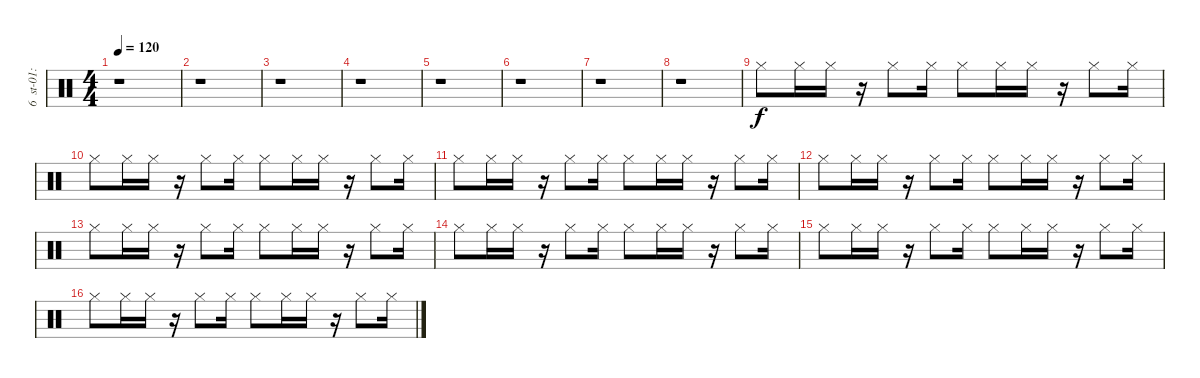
\track (" 6  st-01:hihat2" " 6  st-01:") {instrument percussion}
\staff {score}
\articulation defaults
\ts (4 4)
\tempo 120
\clef neutral
\ks c
r.1{dy f} |
r.1 |
r.1 |
r.1 |
r.1 |
r.1 |
r.1 |
r.1 |
"Hi-Hat (closed)".8 "Hi-Hat (closed)".16 "Hi-Hat (closed)".16 r.16 "Hi-Hat (closed)".8 "Hi-Hat (closed)".16 "Hi-Hat (closed)".8 "Hi-Hat (closed)".16 "Hi-Hat (closed)".16 r.16 "Hi-Hat (closed)".8 "Hi-Hat (closed)".16 |
"Hi-Hat (closed)".8 "Hi-Hat (closed)".16 "Hi-Hat (closed)".16 r.16 "Hi-Hat (closed)".8 "Hi-Hat (closed)".16 "Hi-Hat (closed)".8 "Hi-Hat (closed)".16 "Hi-Hat (closed)".16 r.16 "Hi-Hat (closed)".8 "Hi-Hat (closed)".16 |
"Hi-Hat (closed)".8 "Hi-Hat (closed)".16 "Hi-Hat (closed)".16 r.16 "Hi-Hat (closed)".8 "Hi-Hat (closed)".16 "Hi-Hat (closed)".8 "Hi-Hat (closed)".16 "Hi-Hat (closed)".16 r.16 "Hi-Hat (closed)".8 "Hi-Hat (closed)".16 |
"Hi-Hat (closed)".8 "Hi-Hat (closed)".16 "Hi-Hat (closed)".16 r.16 "Hi-Hat (closed)".8 "Hi-Hat (closed)".16 "Hi-Hat (closed)".8 "Hi-Hat (closed)".16 "Hi-Hat (closed)".16 r.16 "Hi-Hat (closed)".8 "Hi-Hat (closed)".16 |
"Hi-Hat (closed)".8 "Hi-Hat (closed)".16 "Hi-Hat (closed)".16 r.16 "Hi-Hat (closed)".8 "Hi-Hat (closed)".16 "Hi-Hat (closed)".8 "Hi-Hat (closed)".16 "Hi-Hat (closed)".16 r.16 "Hi-Hat (closed)".8 "Hi-Hat (closed)".16 |
"Hi-Hat (closed)".8 "Hi-Hat (closed)".16 "Hi-Hat (closed)".16 r.16 "Hi-Hat (closed)".8 "Hi-Hat (closed)".16 "Hi-Hat (closed)".8 "Hi-Hat (closed)".16 "Hi-Hat (closed)".16 r.16 "Hi-Hat (closed)".8 "Hi-Hat (closed)".16 |
"Hi-Hat (closed)".8 "Hi-Hat (closed)".16 "Hi-Hat (closed)".16 r.16 "Hi-Hat (closed)".8 "Hi-Hat (closed)".16 "Hi-Hat (closed)".8 "Hi-Hat (closed)".16 "Hi-Hat (closed)".16 r.16 "Hi-Hat (closed)".8 "Hi-Hat (closed)".16 |
"Hi-Hat (closed)".8 "Hi-Hat (closed)".16 "Hi-Hat (closed)".16 r.16 "Hi-Hat (closed)".8 "Hi-Hat (closed)".16 "Hi-Hat (closed)".8 "Hi-Hat (closed)".16 "Hi-Hat (closed)".16 r.16 "Hi-Hat (closed)".8 "Hi-Hat (closed)".16
